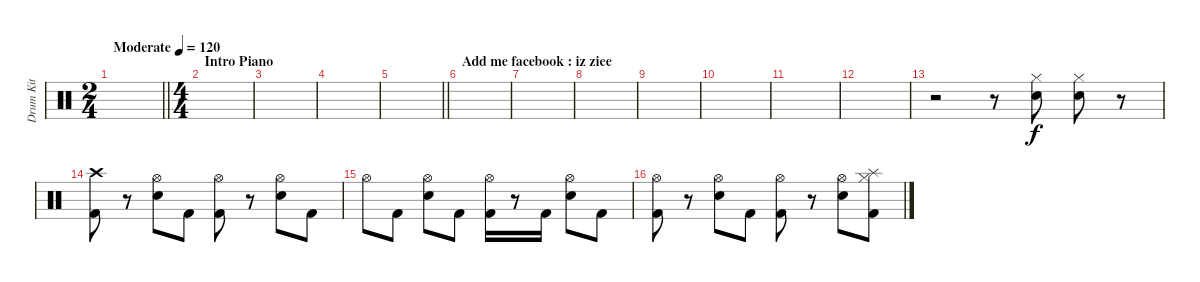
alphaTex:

\track ("Drum Kit" "Drum Kit") {instrument percussion}
\staff {score}
\articulation defaults
\ts (2 4)
\tempo (120 "Moderate")
\clef neutral
\barLineRight lightlight
\ks c
|
\ts (4 4)
\section ("" "Intro Piano")
|
|
|
\barLineRight lightlight
|
\section ("" "Add me facebook : iz ziee")
|
|
|
|
|
|
|
r.2 r.8 ("Electric Snare (hit)" "Hi-Hat (closed)").8 ("Electric Snare (hit)" "Hi-Hat (closed)").8 r.8 |
("Crash high (hit)" "Kick (hit) 2").8 r.8 ("Electric Snare (hit)" "Hi-Hat (open)").8 "Kick (hit) 2".8 ("Kick (hit) 2" "Hi-Hat (open)").8 r.8 ("Electric Snare (hit)" "Hi-Hat (open)").8 "Kick (hit) 2".8 |
"Hi-Hat (open)".8 "Kick (hit) 2".8 ("Electric Snare (hit)" "Hi-Hat (open)").8 "Kick (hit) 2".8 ("Kick (hit) 2" "Hi-Hat (open)").16 r.8 "Kick (hit) 2".16 ("Electric Snare (hit)" "Hi-Hat (open)").8 "Kick (hit) 2".8 |
("Hi-Hat (open)" "Kick (hit) 2").8 r.8 ("Electric Snare (hit)" "Hi-Hat (open)").8 "Kick (hit) 2".8 ("Hi-Hat (open)" "Kick (hit) 2").8 r.8 ("Electric Snare (hit)" "Hi-Hat (open)").8 ("Hi-Hat (closed)" "Kick (hit) 2" "Splash (hit)").8
